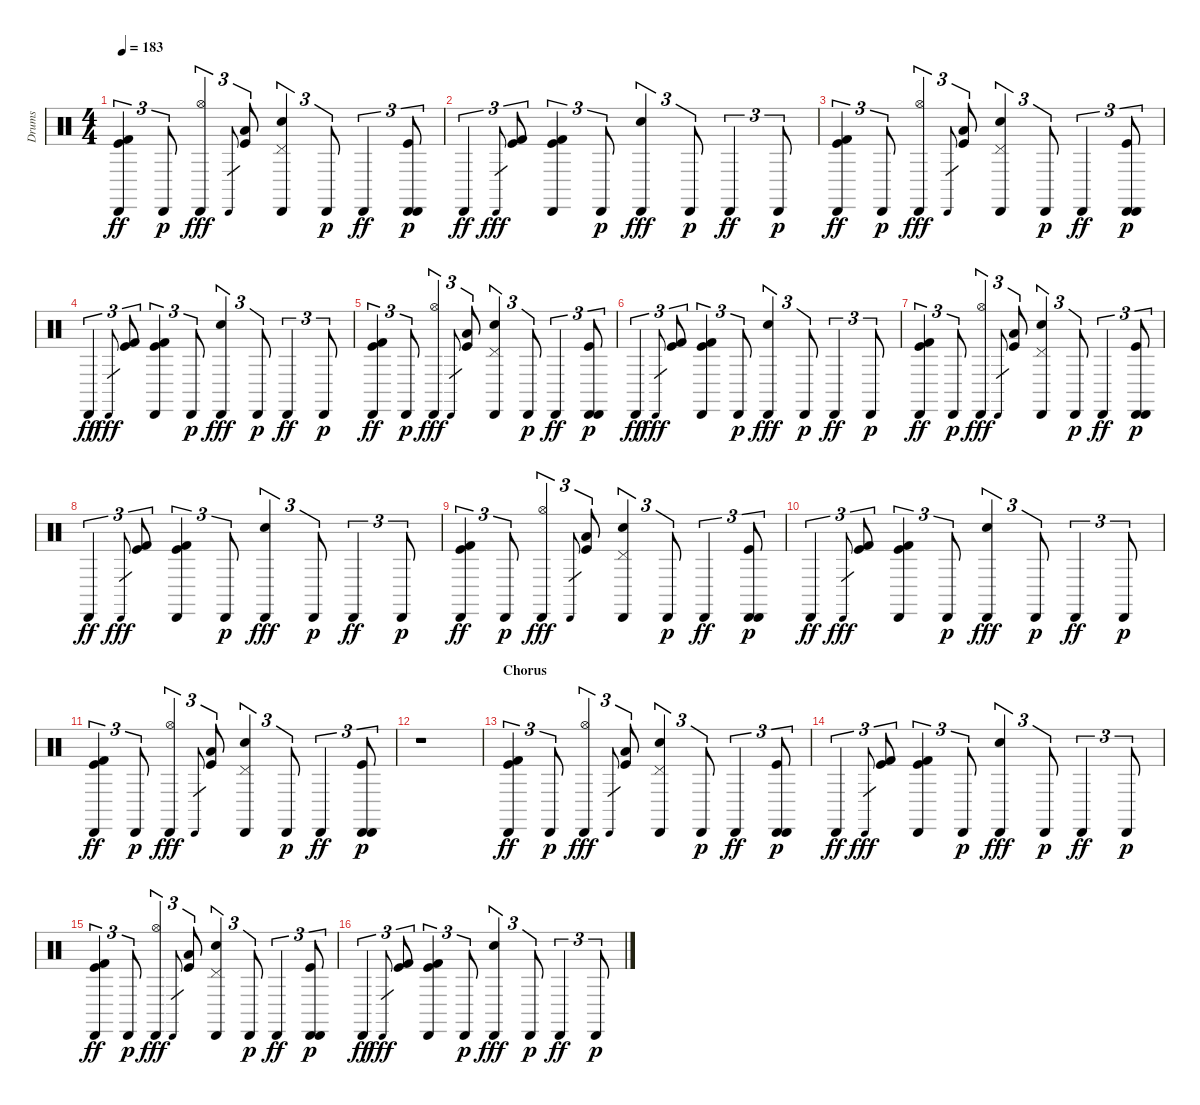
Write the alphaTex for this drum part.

\track ("Drums" "Drums") {instrument percussion}
\staff {score}
\articulation defaults
\ts (4 4)
\tempo 183
\clef neutral
\ks c
("Kick (hit) 2" "Kick (hit)" "Cabasa (hit)").4{tu (3 2) dy ff} "Cabasa (hit)".8{tu (3 2) dy p} ("Cabasa (hit)" "Hi-Hat (open)").4{tu (3 2) dy fff} "Cabasa (hit)".8{gr} ("Kick (hit)" "Low Floor Tom (hit)").8{tu (3 2)} ("Cabasa (hit)" "Electric Snare (hit)" "Pedal Hi-Hat (hit)").4{tu (3 2)} "Cabasa (hit)".8{tu (3 2) dy p} "Cabasa (hit)".4{tu (3 2) dy ff} ("Cabasa (hit)" "Kick (hit)" "Cabasa (hit)").8{tu (3 2) dy p} |
"Cabasa (hit)".4{tu (3 2) dy ff} "Cabasa (hit)".8{gr dy fff} ("Kick (hit)" "Kick (hit) 2").8{tu (3 2)} ("Cabasa (hit)" "Kick (hit)" "Kick (hit) 2").4{tu (3 2)} "Cabasa (hit)".8{tu (3 2) dy p} ("Cabasa (hit)" "Electric Snare (hit)").4{tu (3 2) dy fff} "Cabasa (hit)".8{tu (3 2) dy p} "Cabasa (hit)".4{tu (3 2) dy ff} "Cabasa (hit)".8{tu (3 2) dy p} |
("Kick (hit) 2" "Kick (hit)" "Cabasa (hit)").4{tu (3 2) dy ff} "Cabasa (hit)".8{tu (3 2) dy p} ("Cabasa (hit)" "Hi-Hat (open)").4{tu (3 2) dy fff} "Cabasa (hit)".8{gr} ("Kick (hit)" "Low Floor Tom (hit)").8{tu (3 2)} ("Cabasa (hit)" "Electric Snare (hit)" "Pedal Hi-Hat (hit)").4{tu (3 2)} "Cabasa (hit)".8{tu (3 2) dy p} "Cabasa (hit)".4{tu (3 2) dy ff} ("Cabasa (hit)" "Kick (hit)" "Cabasa (hit)").8{tu (3 2) dy p} |
"Cabasa (hit)".4{tu (3 2) dy ff} "Cabasa (hit)".8{gr dy fff} ("Kick (hit)" "Kick (hit) 2").8{tu (3 2)} ("Cabasa (hit)" "Kick (hit)" "Kick (hit) 2").4{tu (3 2)} "Cabasa (hit)".8{tu (3 2) dy p} ("Cabasa (hit)" "Electric Snare (hit)").4{tu (3 2) dy fff} "Cabasa (hit)".8{tu (3 2) dy p} "Cabasa (hit)".4{tu (3 2) dy ff} "Cabasa (hit)".8{tu (3 2) dy p} |
("Kick (hit) 2" "Kick (hit)" "Cabasa (hit)").4{tu (3 2) dy ff} "Cabasa (hit)".8{tu (3 2) dy p} ("Cabasa (hit)" "Hi-Hat (open)").4{tu (3 2) dy fff} "Cabasa (hit)".8{gr} ("Kick (hit)" "Low Floor Tom (hit)").8{tu (3 2)} ("Cabasa (hit)" "Electric Snare (hit)" "Pedal Hi-Hat (hit)").4{tu (3 2)} "Cabasa (hit)".8{tu (3 2) dy p} "Cabasa (hit)".4{tu (3 2) dy ff} ("Cabasa (hit)" "Kick (hit)" "Cabasa (hit)").8{tu (3 2) dy p} |
"Cabasa (hit)".4{tu (3 2) dy ff} "Cabasa (hit)".8{gr dy fff} ("Kick (hit)" "Kick (hit) 2").8{tu (3 2)} ("Cabasa (hit)" "Kick (hit)" "Kick (hit) 2").4{tu (3 2)} "Cabasa (hit)".8{tu (3 2) dy p} ("Cabasa (hit)" "Electric Snare (hit)").4{tu (3 2) dy fff} "Cabasa (hit)".8{tu (3 2) dy p} "Cabasa (hit)".4{tu (3 2) dy ff} "Cabasa (hit)".8{tu (3 2) dy p} |
("Kick (hit) 2" "Kick (hit)" "Cabasa (hit)").4{tu (3 2) dy ff} "Cabasa (hit)".8{tu (3 2) dy p} ("Cabasa (hit)" "Hi-Hat (open)").4{tu (3 2) dy fff} "Cabasa (hit)".8{gr} ("Kick (hit)" "Low Floor Tom (hit)").8{tu (3 2)} ("Cabasa (hit)" "Electric Snare (hit)" "Pedal Hi-Hat (hit)").4{tu (3 2)} "Cabasa (hit)".8{tu (3 2) dy p} "Cabasa (hit)".4{tu (3 2) dy ff} ("Cabasa (hit)" "Kick (hit)" "Cabasa (hit)").8{tu (3 2) dy p} |
"Cabasa (hit)".4{tu (3 2) dy ff} "Cabasa (hit)".8{gr dy fff} ("Kick (hit)" "Kick (hit) 2").8{tu (3 2)} ("Cabasa (hit)" "Kick (hit)" "Kick (hit) 2").4{tu (3 2)} "Cabasa (hit)".8{tu (3 2) dy p} ("Cabasa (hit)" "Electric Snare (hit)").4{tu (3 2) dy fff} "Cabasa (hit)".8{tu (3 2) dy p} "Cabasa (hit)".4{tu (3 2) dy ff} "Cabasa (hit)".8{tu (3 2) dy p} |
("Kick (hit) 2" "Kick (hit)" "Cabasa (hit)").4{tu (3 2) dy ff} "Cabasa (hit)".8{tu (3 2) dy p} ("Cabasa (hit)" "Hi-Hat (open)").4{tu (3 2) dy fff} "Cabasa (hit)".8{gr} ("Kick (hit)" "Low Floor Tom (hit)").8{tu (3 2)} ("Cabasa (hit)" "Electric Snare (hit)" "Pedal Hi-Hat (hit)").4{tu (3 2)} "Cabasa (hit)".8{tu (3 2) dy p} "Cabasa (hit)".4{tu (3 2) dy ff} ("Cabasa (hit)" "Kick (hit)" "Cabasa (hit)").8{tu (3 2) dy p} |
"Cabasa (hit)".4{tu (3 2) dy ff} "Cabasa (hit)".8{gr dy fff} ("Kick (hit)" "Kick (hit) 2").8{tu (3 2)} ("Cabasa (hit)" "Kick (hit)" "Kick (hit) 2").4{tu (3 2)} "Cabasa (hit)".8{tu (3 2) dy p} ("Cabasa (hit)" "Electric Snare (hit)").4{tu (3 2) dy fff} "Cabasa (hit)".8{tu (3 2) dy p} "Cabasa (hit)".4{tu (3 2) dy ff} "Cabasa (hit)".8{tu (3 2) dy p} |
("Kick (hit) 2" "Kick (hit)" "Cabasa (hit)").4{tu (3 2) dy ff} "Cabasa (hit)".8{tu (3 2) dy p} ("Cabasa (hit)" "Hi-Hat (open)").4{tu (3 2) dy fff} "Cabasa (hit)".8{gr} ("Kick (hit)" "Low Floor Tom (hit)").8{tu (3 2)} ("Cabasa (hit)" "Electric Snare (hit)" "Pedal Hi-Hat (hit)").4{tu (3 2)} "Cabasa (hit)".8{tu (3 2) dy p} "Cabasa (hit)".4{tu (3 2) dy ff} ("Cabasa (hit)" "Kick (hit)" "Cabasa (hit)").8{tu (3 2) dy p} |
r.1 |
\section ("" "Chorus")
("Kick (hit) 2" "Kick (hit)" "Cabasa (hit)").4{tu (3 2) dy ff} "Cabasa (hit)".8{tu (3 2) dy p} ("Cabasa (hit)" "Hi-Hat (open)").4{tu (3 2) dy fff} "Cabasa (hit)".8{gr} ("Kick (hit)" "Low Floor Tom (hit)").8{tu (3 2)} ("Cabasa (hit)" "Electric Snare (hit)" "Pedal Hi-Hat (hit)").4{tu (3 2)} "Cabasa (hit)".8{tu (3 2) dy p} "Cabasa (hit)".4{tu (3 2) dy ff} ("Cabasa (hit)" "Kick (hit)" "Cabasa (hit)").8{tu (3 2) dy p} |
"Cabasa (hit)".4{tu (3 2) dy ff} "Cabasa (hit)".8{gr dy fff} ("Kick (hit)" "Kick (hit) 2").8{tu (3 2)} ("Cabasa (hit)" "Kick (hit)" "Kick (hit) 2").4{tu (3 2)} "Cabasa (hit)".8{tu (3 2) dy p} ("Cabasa (hit)" "Electric Snare (hit)").4{tu (3 2) dy fff} "Cabasa (hit)".8{tu (3 2) dy p} "Cabasa (hit)".4{tu (3 2) dy ff} "Cabasa (hit)".8{tu (3 2) dy p} |
("Kick (hit) 2" "Kick (hit)" "Cabasa (hit)").4{tu (3 2) dy ff} "Cabasa (hit)".8{tu (3 2) dy p} ("Cabasa (hit)" "Hi-Hat (open)").4{tu (3 2) dy fff} "Cabasa (hit)".8{gr} ("Kick (hit)" "Low Floor Tom (hit)").8{tu (3 2)} ("Cabasa (hit)" "Electric Snare (hit)" "Pedal Hi-Hat (hit)").4{tu (3 2)} "Cabasa (hit)".8{tu (3 2) dy p} "Cabasa (hit)".4{tu (3 2) dy ff} ("Cabasa (hit)" "Kick (hit)" "Cabasa (hit)").8{tu (3 2) dy p} |
"Cabasa (hit)".4{tu (3 2) dy ff} "Cabasa (hit)".8{gr dy fff} ("Kick (hit)" "Kick (hit) 2").8{tu (3 2)} ("Cabasa (hit)" "Kick (hit)" "Kick (hit) 2").4{tu (3 2)} "Cabasa (hit)".8{tu (3 2) dy p} ("Cabasa (hit)" "Electric Snare (hit)").4{tu (3 2) dy fff} "Cabasa (hit)".8{tu (3 2) dy p} "Cabasa (hit)".4{tu (3 2) dy ff} "Cabasa (hit)".8{tu (3 2) dy p}
